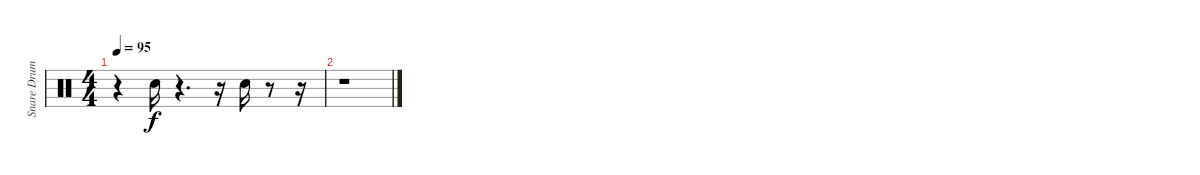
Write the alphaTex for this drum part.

\track ("Snare Drum" "Snare Drum") {instrument percussion}
\staff {score}
\articulation defaults
\ts (4 4)
\tempo 95
\clef neutral
\ks c
r.4{dy f} "Snare (hit) 2".16 r.4{d} r.16 "Snare (hit) 2".16 r.8 r.16 |
r.1
